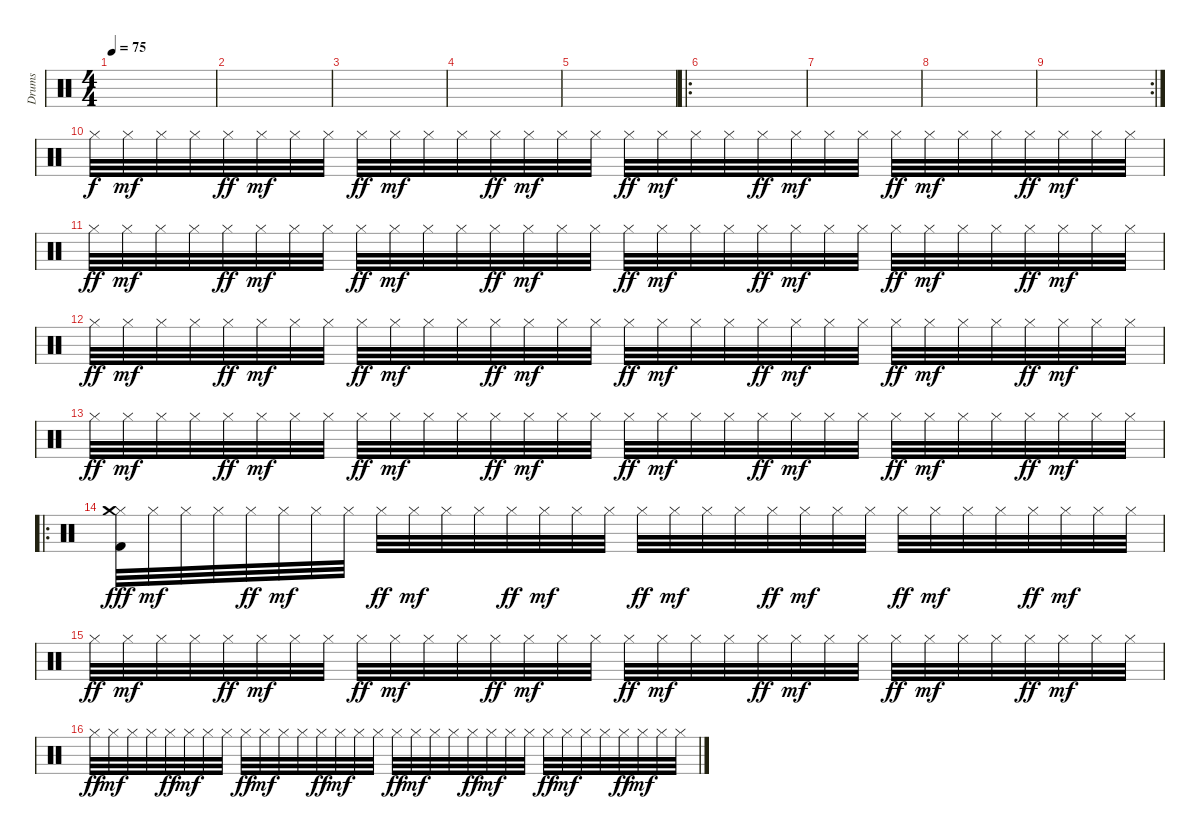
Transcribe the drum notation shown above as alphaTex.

\track ("Drums" "Drums") {instrument percussion}
\staff {score}
\articulation defaults
\ts (4 4)
\tempo 75
\clef neutral
\ks aminor
|
|
|
|
|
\ro
|
|
|
\rc 2
|
"Hi-Hat (closed)".32 "Hi-Hat (closed)".32{dy mf} "Hi-Hat (closed)".32 "Hi-Hat (closed)".32 "Hi-Hat (closed)".32{dy ff} "Hi-Hat (closed)".32{dy mf} "Hi-Hat (closed)".32 "Hi-Hat (closed)".32 "Hi-Hat (closed)".32{dy ff} "Hi-Hat (closed)".32{dy mf} "Hi-Hat (closed)".32 "Hi-Hat (closed)".32 "Hi-Hat (closed)".32{dy ff} "Hi-Hat (closed)".32{dy mf} "Hi-Hat (closed)".32 "Hi-Hat (closed)".32 "Hi-Hat (closed)".32{dy ff} "Hi-Hat (closed)".32{dy mf} "Hi-Hat (closed)".32 "Hi-Hat (closed)".32 "Hi-Hat (closed)".32{dy ff} "Hi-Hat (closed)".32{dy mf} "Hi-Hat (closed)".32 "Hi-Hat (closed)".32 "Hi-Hat (closed)".32{dy ff} "Hi-Hat (closed)".32{dy mf} "Hi-Hat (closed)".32 "Hi-Hat (closed)".32 "Hi-Hat (closed)".32{dy ff} "Hi-Hat (closed)".32{dy mf} "Hi-Hat (closed)".32 "Hi-Hat (closed)".32 |
"Hi-Hat (closed)".32{dy ff} "Hi-Hat (closed)".32{dy mf} "Hi-Hat (closed)".32 "Hi-Hat (closed)".32 "Hi-Hat (closed)".32{dy ff} "Hi-Hat (closed)".32{dy mf} "Hi-Hat (closed)".32 "Hi-Hat (closed)".32 "Hi-Hat (closed)".32{dy ff} "Hi-Hat (closed)".32{dy mf} "Hi-Hat (closed)".32 "Hi-Hat (closed)".32 "Hi-Hat (closed)".32{dy ff} "Hi-Hat (closed)".32{dy mf} "Hi-Hat (closed)".32 "Hi-Hat (closed)".32 "Hi-Hat (closed)".32{dy ff} "Hi-Hat (closed)".32{dy mf} "Hi-Hat (closed)".32 "Hi-Hat (closed)".32 "Hi-Hat (closed)".32{dy ff} "Hi-Hat (closed)".32{dy mf} "Hi-Hat (closed)".32 "Hi-Hat (closed)".32 "Hi-Hat (closed)".32{dy ff} "Hi-Hat (closed)".32{dy mf} "Hi-Hat (closed)".32 "Hi-Hat (closed)".32 "Hi-Hat (closed)".32{dy ff} "Hi-Hat (closed)".32{dy mf} "Hi-Hat (closed)".32 "Hi-Hat (closed)".32 |
"Hi-Hat (closed)".32{dy ff} "Hi-Hat (closed)".32{dy mf} "Hi-Hat (closed)".32 "Hi-Hat (closed)".32 "Hi-Hat (closed)".32{dy ff} "Hi-Hat (closed)".32{dy mf} "Hi-Hat (closed)".32 "Hi-Hat (closed)".32 "Hi-Hat (closed)".32{dy ff} "Hi-Hat (closed)".32{dy mf} "Hi-Hat (closed)".32 "Hi-Hat (closed)".32 "Hi-Hat (closed)".32{dy ff} "Hi-Hat (closed)".32{dy mf} "Hi-Hat (closed)".32 "Hi-Hat (closed)".32 "Hi-Hat (closed)".32{dy ff} "Hi-Hat (closed)".32{dy mf} "Hi-Hat (closed)".32 "Hi-Hat (closed)".32 "Hi-Hat (closed)".32{dy ff} "Hi-Hat (closed)".32{dy mf} "Hi-Hat (closed)".32 "Hi-Hat (closed)".32 "Hi-Hat (closed)".32{dy ff} "Hi-Hat (closed)".32{dy mf} "Hi-Hat (closed)".32 "Hi-Hat (closed)".32 "Hi-Hat (closed)".32{dy ff} "Hi-Hat (closed)".32{dy mf} "Hi-Hat (closed)".32 "Hi-Hat (closed)".32 |
"Hi-Hat (closed)".32{dy ff} "Hi-Hat (closed)".32{dy mf} "Hi-Hat (closed)".32 "Hi-Hat (closed)".32 "Hi-Hat (closed)".32{dy ff} "Hi-Hat (closed)".32{dy mf} "Hi-Hat (closed)".32 "Hi-Hat (closed)".32 "Hi-Hat (closed)".32{dy ff} "Hi-Hat (closed)".32{dy mf} "Hi-Hat (closed)".32 "Hi-Hat (closed)".32 "Hi-Hat (closed)".32{dy ff} "Hi-Hat (closed)".32{dy mf} "Hi-Hat (closed)".32 "Hi-Hat (closed)".32 "Hi-Hat (closed)".32{dy ff} "Hi-Hat (closed)".32{dy mf} "Hi-Hat (closed)".32 "Hi-Hat (closed)".32 "Hi-Hat (closed)".32{dy ff} "Hi-Hat (closed)".32{dy mf} "Hi-Hat (closed)".32 "Hi-Hat (closed)".32 "Hi-Hat (closed)".32{dy ff} "Hi-Hat (closed)".32{dy mf} "Hi-Hat (closed)".32 "Hi-Hat (closed)".32 "Hi-Hat (closed)".32{dy ff} "Hi-Hat (closed)".32{dy mf} "Hi-Hat (closed)".32 "Hi-Hat (closed)".32 |
\ro
("Hi-Hat (closed)" "Kick (hit) 2" "Crash medium (hit)").32{dy fff} "Hi-Hat (closed)".32{dy mf} "Hi-Hat (closed)".32 "Hi-Hat (closed)".32 "Hi-Hat (closed)".32{dy ff} "Hi-Hat (closed)".32{dy mf} "Hi-Hat (closed)".32 "Hi-Hat (closed)".32 "Hi-Hat (closed)".32{dy ff} "Hi-Hat (closed)".32{dy mf} "Hi-Hat (closed)".32 "Hi-Hat (closed)".32 "Hi-Hat (closed)".32{dy ff} "Hi-Hat (closed)".32{dy mf} "Hi-Hat (closed)".32 "Hi-Hat (closed)".32 "Hi-Hat (closed)".32{dy ff} "Hi-Hat (closed)".32{dy mf} "Hi-Hat (closed)".32 "Hi-Hat (closed)".32 "Hi-Hat (closed)".32{dy ff} "Hi-Hat (closed)".32{dy mf} "Hi-Hat (closed)".32 "Hi-Hat (closed)".32 "Hi-Hat (closed)".32{dy ff} "Hi-Hat (closed)".32{dy mf} "Hi-Hat (closed)".32 "Hi-Hat (closed)".32 "Hi-Hat (closed)".32{dy ff} "Hi-Hat (closed)".32{dy mf} "Hi-Hat (closed)".32 "Hi-Hat (closed)".32 |
"Hi-Hat (closed)".32{dy ff} "Hi-Hat (closed)".32{dy mf} "Hi-Hat (closed)".32 "Hi-Hat (closed)".32 "Hi-Hat (closed)".32{dy ff} "Hi-Hat (closed)".32{dy mf} "Hi-Hat (closed)".32 "Hi-Hat (closed)".32 "Hi-Hat (closed)".32{dy ff} "Hi-Hat (closed)".32{dy mf} "Hi-Hat (closed)".32 "Hi-Hat (closed)".32 "Hi-Hat (closed)".32{dy ff} "Hi-Hat (closed)".32{dy mf} "Hi-Hat (closed)".32 "Hi-Hat (closed)".32 "Hi-Hat (closed)".32{dy ff} "Hi-Hat (closed)".32{dy mf} "Hi-Hat (closed)".32 "Hi-Hat (closed)".32 "Hi-Hat (closed)".32{dy ff} "Hi-Hat (closed)".32{dy mf} "Hi-Hat (closed)".32 "Hi-Hat (closed)".32 "Hi-Hat (closed)".32{dy ff} "Hi-Hat (closed)".32{dy mf} "Hi-Hat (closed)".32 "Hi-Hat (closed)".32 "Hi-Hat (closed)".32{dy ff} "Hi-Hat (closed)".32{dy mf} "Hi-Hat (closed)".32 "Hi-Hat (closed)".32 |
"Hi-Hat (closed)".32{dy ff} "Hi-Hat (closed)".32{dy mf} "Hi-Hat (closed)".32 "Hi-Hat (closed)".32 "Hi-Hat (closed)".32{dy ff} "Hi-Hat (closed)".32{dy mf} "Hi-Hat (closed)".32 "Hi-Hat (closed)".32 "Hi-Hat (closed)".32{dy ff} "Hi-Hat (closed)".32{dy mf} "Hi-Hat (closed)".32 "Hi-Hat (closed)".32 "Hi-Hat (closed)".32{dy ff} "Hi-Hat (closed)".32{dy mf} "Hi-Hat (closed)".32 "Hi-Hat (closed)".32 "Hi-Hat (closed)".32{dy ff} "Hi-Hat (closed)".32{dy mf} "Hi-Hat (closed)".32 "Hi-Hat (closed)".32 "Hi-Hat (closed)".32{dy ff} "Hi-Hat (closed)".32{dy mf} "Hi-Hat (closed)".32 "Hi-Hat (closed)".32 "Hi-Hat (closed)".32{dy ff} "Hi-Hat (closed)".32{dy mf} "Hi-Hat (closed)".32 "Hi-Hat (closed)".32 "Hi-Hat (closed)".32{dy ff} "Hi-Hat (closed)".32{dy mf} "Hi-Hat (closed)".32 "Hi-Hat (closed)".32
